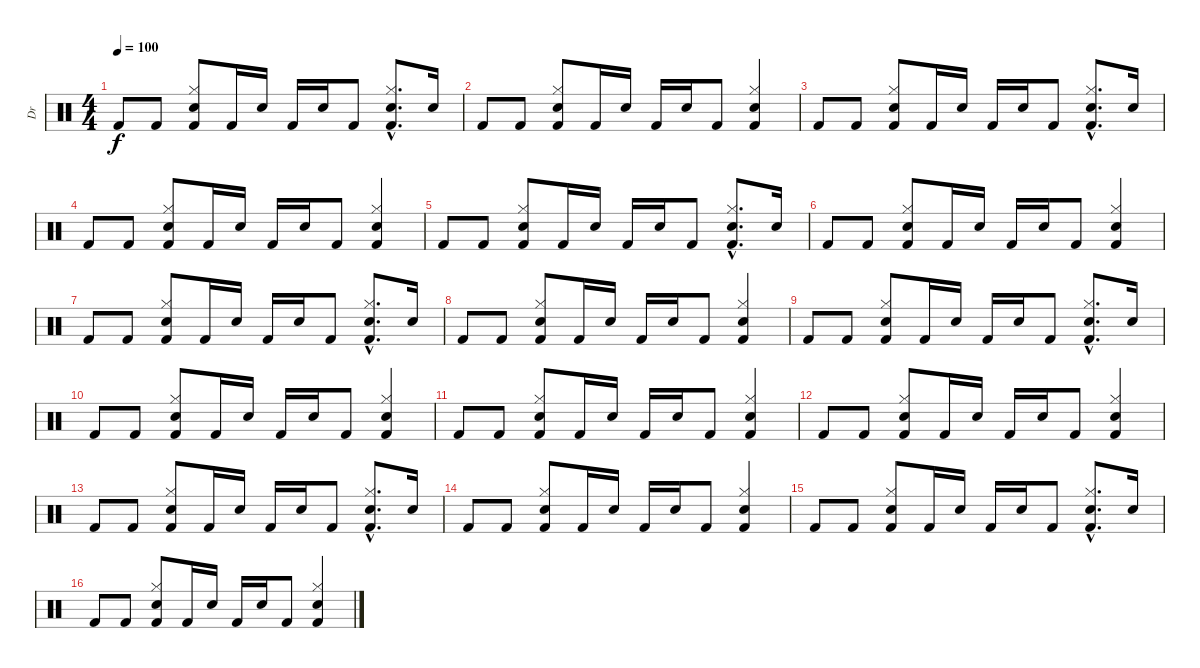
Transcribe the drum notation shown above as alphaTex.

\track ("Dr" "Dr") {instrument percussion}
\staff {score}
\articulation defaults
\ts (4 4)
\tempo 100
\clef neutral
\ks c "Kick (hit) 2".8{dy f} "Kick (hit) 2".8
("Hi-Hat (closed)" "Electric Snare (hit)" "Kick (hit) 2").8 "Kick (hit) 2".16 "Electric Snare (hit)".16 "Kick (hit) 2".16 "Electric Snare (hit)".16 "Kick (hit) 2".8 ("Hi-Hat (closed)"{hac} "Electric Snare (hit)"{hac} "Kick (hit) 2"{hac}).8{d} "Electric Snare (hit)".16 |
"Kick (hit) 2".8 "Kick (hit) 2".8 ("Hi-Hat (closed)" "Electric Snare (hit)" "Kick (hit) 2").8 "Kick (hit) 2".16 "Electric Snare (hit)".16 "Kick (hit) 2".16 "Electric Snare (hit)".16 "Kick (hit) 2".8 ("Hi-Hat (closed)" "Electric Snare (hit)" "Kick (hit) 2").4 |
"Kick (hit) 2".8 "Kick (hit) 2".8 ("Hi-Hat (closed)" "Electric Snare (hit)" "Kick (hit) 2").8 "Kick (hit) 2".16 "Electric Snare (hit)".16 "Kick (hit) 2".16 "Electric Snare (hit)".16 "Kick (hit) 2".8 ("Hi-Hat (closed)"{hac} "Electric Snare (hit)"{hac} "Kick (hit) 2"{hac}).8{d} "Electric Snare (hit)".16 |
"Kick (hit) 2".8 "Kick (hit) 2".8 ("Hi-Hat (closed)" "Electric Snare (hit)" "Kick (hit) 2").8 "Kick (hit) 2".16 "Electric Snare (hit)".16 "Kick (hit) 2".16 "Electric Snare (hit)".16 "Kick (hit) 2".8 ("Hi-Hat (closed)" "Electric Snare (hit)" "Kick (hit) 2").4 |
"Kick (hit) 2".8 "Kick (hit) 2".8 ("Hi-Hat (closed)" "Electric Snare (hit)" "Kick (hit) 2").8 "Kick (hit) 2".16 "Electric Snare (hit)".16 "Kick (hit) 2".16 "Electric Snare (hit)".16 "Kick (hit) 2".8 ("Hi-Hat (closed)"{hac} "Electric Snare (hit)"{hac} "Kick (hit) 2"{hac}).8{d} "Electric Snare (hit)".16 |
"Kick (hit) 2".8 "Kick (hit) 2".8 ("Hi-Hat (closed)" "Electric Snare (hit)" "Kick (hit) 2").8 "Kick (hit) 2".16 "Electric Snare (hit)".16 "Kick (hit) 2".16 "Electric Snare (hit)".16 "Kick (hit) 2".8 ("Hi-Hat (closed)" "Electric Snare (hit)" "Kick (hit) 2").4 |
"Kick (hit) 2".8 "Kick (hit) 2".8 ("Hi-Hat (closed)" "Electric Snare (hit)" "Kick (hit) 2").8 "Kick (hit) 2".16 "Electric Snare (hit)".16 "Kick (hit) 2".16 "Electric Snare (hit)".16 "Kick (hit) 2".8 ("Hi-Hat (closed)"{hac} "Electric Snare (hit)"{hac} "Kick (hit) 2"{hac}).8{d} "Electric Snare (hit)".16 |
"Kick (hit) 2".8 "Kick (hit) 2".8 ("Hi-Hat (closed)" "Electric Snare (hit)" "Kick (hit) 2").8 "Kick (hit) 2".16 "Electric Snare (hit)".16 "Kick (hit) 2".16 "Electric Snare (hit)".16 "Kick (hit) 2".8 ("Hi-Hat (closed)" "Electric Snare (hit)" "Kick (hit) 2").4 |
"Kick (hit) 2".8 "Kick (hit) 2".8 ("Hi-Hat (closed)" "Electric Snare (hit)" "Kick (hit) 2").8 "Kick (hit) 2".16 "Electric Snare (hit)".16 "Kick (hit) 2".16 "Electric Snare (hit)".16 "Kick (hit) 2".8 ("Hi-Hat (closed)"{hac} "Electric Snare (hit)"{hac} "Kick (hit) 2"{hac}).8{d} "Electric Snare (hit)".16 |
"Kick (hit) 2".8 "Kick (hit) 2".8 ("Hi-Hat (closed)" "Electric Snare (hit)" "Kick (hit) 2").8 "Kick (hit) 2".16 "Electric Snare (hit)".16 "Kick (hit) 2".16 "Electric Snare (hit)".16 "Kick (hit) 2".8 ("Hi-Hat (closed)" "Electric Snare (hit)" "Kick (hit) 2").4 |
"Kick (hit) 2".8 "Kick (hit) 2".8 ("Hi-Hat (closed)" "Electric Snare (hit)" "Kick (hit) 2").8 "Kick (hit) 2".16 "Electric Snare (hit)".16 "Kick (hit) 2".16 "Electric Snare (hit)".16 "Kick (hit) 2".8 ("Hi-Hat (closed)" "Electric Snare (hit)" "Kick (hit) 2").4 |
"Kick (hit) 2".8 "Kick (hit) 2".8 ("Hi-Hat (closed)" "Electric Snare (hit)" "Kick (hit) 2").8 "Kick (hit) 2".16 "Electric Snare (hit)".16 "Kick (hit) 2".16 "Electric Snare (hit)".16 "Kick (hit) 2".8 ("Hi-Hat (closed)" "Electric Snare (hit)" "Kick (hit) 2").4 |
"Kick (hit) 2".8 "Kick (hit) 2".8 ("Hi-Hat (closed)" "Electric Snare (hit)" "Kick (hit) 2").8 "Kick (hit) 2".16 "Electric Snare (hit)".16 "Kick (hit) 2".16 "Electric Snare (hit)".16 "Kick (hit) 2".8 ("Hi-Hat (closed)"{hac} "Electric Snare (hit)"{hac} "Kick (hit) 2"{hac}).8{d} "Electric Snare (hit)".16 |
"Kick (hit) 2".8 "Kick (hit) 2".8 ("Hi-Hat (closed)" "Electric Snare (hit)" "Kick (hit) 2").8 "Kick (hit) 2".16 "Electric Snare (hit)".16 "Kick (hit) 2".16 "Electric Snare (hit)".16 "Kick (hit) 2".8 ("Hi-Hat (closed)" "Electric Snare (hit)" "Kick (hit) 2").4 |
"Kick (hit) 2".8 "Kick (hit) 2".8 ("Hi-Hat (closed)" "Electric Snare (hit)" "Kick (hit) 2").8 "Kick (hit) 2".16 "Electric Snare (hit)".16 "Kick (hit) 2".16 "Electric Snare (hit)".16 "Kick (hit) 2".8 ("Hi-Hat (closed)"{hac} "Electric Snare (hit)"{hac} "Kick (hit) 2"{hac}).8{d} "Electric Snare (hit)".16 |
"Kick (hit) 2".8 "Kick (hit) 2".8 ("Hi-Hat (closed)" "Electric Snare (hit)" "Kick (hit) 2").8 "Kick (hit) 2".16 "Electric Snare (hit)".16 "Kick (hit) 2".16 "Electric Snare (hit)".16 "Kick (hit) 2".8 ("Hi-Hat (closed)" "Electric Snare (hit)" "Kick (hit) 2").4
